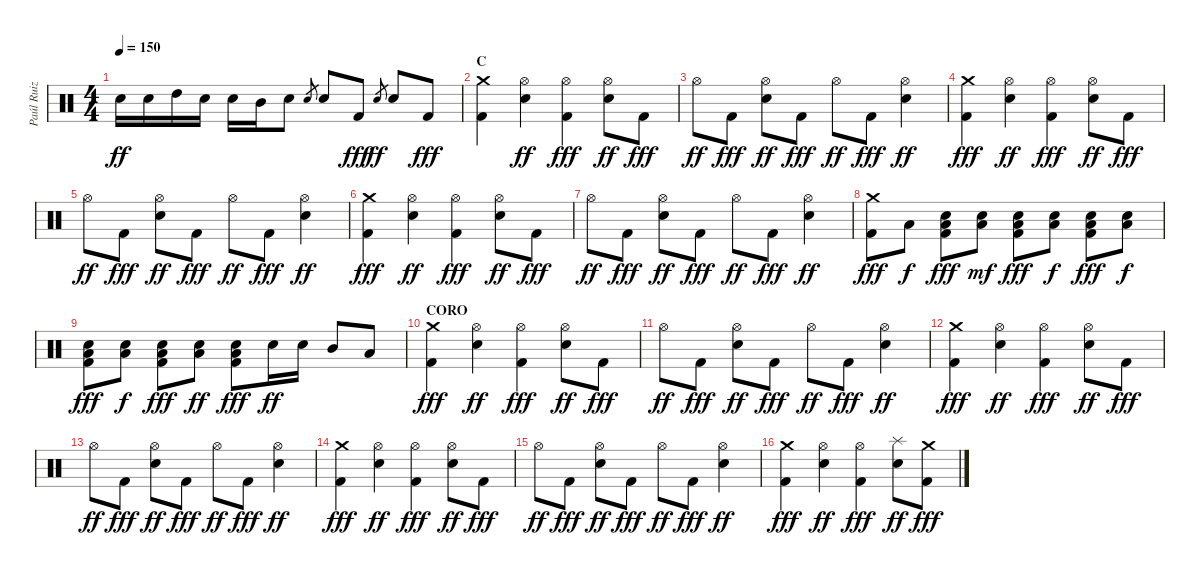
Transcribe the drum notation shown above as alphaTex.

\track ("Paúl Ruiz" "Paúl Ruiz") {instrument percussion}
\staff {score}
\articulation defaults
\ts (4 4)
\tempo 150
\clef neutral
\ks c "Snare (hit) 2".16{dy ff} "Snare (hit) 2".16 "High Tom (hit)".16 "Snare (hit) 2".16 "Snare (hit) 2".16 "Mid Tom (hit)".16 "Snare (hit) 2".8 "Snare (hit) 2".8{gr} "Snare (hit) 2".8 "Kick (hit) 2".8{dy fff} "Snare (hit) 2".8{gr dy ff} "Snare (hit) 2".8 "Kick (hit) 2".8{dy fff}
|
\section ("" "C")
("Crash medium (hit)" "Kick (hit) 2").4 ("Hi-Hat (open)" "Snare (hit) 2").4{dy ff} ("Hi-Hat (open)" "Kick (hit) 2").4{dy fff} ("Hi-Hat (open)" "Snare (hit) 2").8{dy ff} "Kick (hit) 2".8{dy fff} |
"Hi-Hat (open)".8{dy ff} "Kick (hit) 2".8{dy fff} ("Hi-Hat (open)" "Snare (hit) 2").8{dy ff} "Kick (hit) 2".8{dy fff} "Hi-Hat (open)".8{dy ff} "Kick (hit) 2".8{dy fff} ("Hi-Hat (open)" "Snare (hit) 2").4{dy ff} |
("Crash medium (hit)" "Kick (hit) 2").4{dy fff} ("Hi-Hat (open)" "Snare (hit) 2").4{dy ff} ("Hi-Hat (open)" "Kick (hit) 2").4{dy fff} ("Hi-Hat (open)" "Snare (hit) 2").8{dy ff} "Kick (hit) 2".8{dy fff} |
"Hi-Hat (open)".8{dy ff} "Kick (hit) 2".8{dy fff} ("Hi-Hat (open)" "Snare (hit) 2").8{dy ff} "Kick (hit) 2".8{dy fff} "Hi-Hat (open)".8{dy ff} "Kick (hit) 2".8{dy fff} ("Hi-Hat (open)" "Snare (hit) 2").4{dy ff} |
("Crash medium (hit)" "Kick (hit) 2").4{dy fff} ("Hi-Hat (open)" "Snare (hit) 2").4{dy ff} ("Hi-Hat (open)" "Kick (hit) 2").4{dy fff} ("Hi-Hat (open)" "Snare (hit) 2").8{dy ff} "Kick (hit) 2".8{dy fff} |
"Hi-Hat (open)".8{dy ff} "Kick (hit) 2".8{dy fff} ("Hi-Hat (open)" "Snare (hit) 2").8{dy ff} "Kick (hit) 2".8{dy fff} "Hi-Hat (open)".8{dy ff} "Kick (hit) 2".8{dy fff} ("Hi-Hat (open)" "Snare (hit) 2").4{dy ff} |
("Crash medium (hit)" "Kick (hit) 2").8{dy fff} "Low Tom (hit)".8{dy f} ("Snare (hit) 2" "Low Tom (hit)" "Kick (hit) 2").8{dy fff} ("Snare (hit) 2" "Low Tom (hit)").8{dy mf} ("Snare (hit) 2" "Low Tom (hit)" "Kick (hit) 2").8{dy fff} ("Snare (hit) 2" "Low Tom (hit)").8{dy f} ("Snare (hit) 2" "Low Tom (hit)" "Kick (hit) 2").8{dy fff} ("Snare (hit) 2" "Low Tom (hit)").8{dy f} |
("Snare (hit) 2" "Low Tom (hit)" "Kick (hit) 2").8{dy fff} ("Snare (hit) 2" "Low Tom (hit)").8{dy f} ("Snare (hit) 2" "Low Tom (hit)" "Kick (hit) 2").8{dy fff} ("Snare (hit) 2" "Low Tom (hit)").8{dy ff} ("Snare (hit) 2" "Low Tom (hit)" "Kick (hit) 2").8{dy fff} "Snare (hit) 2".16{dy ff} "Snare (hit) 2".16 "Mid Tom (hit)".8 "Low Tom (hit)".8 |
\section ("" "CORO")
("Crash medium (hit)" "Kick (hit) 2").4{dy fff} ("Hi-Hat (open)" "Snare (hit) 2").4{dy ff} ("Hi-Hat (open)" "Kick (hit) 2").4{dy fff} ("Hi-Hat (open)" "Snare (hit) 2").8{dy ff} "Kick (hit) 2".8{dy fff} |
"Hi-Hat (open)".8{dy ff} "Kick (hit) 2".8{dy fff} ("Hi-Hat (open)" "Snare (hit) 2").8{dy ff} "Kick (hit) 2".8{dy fff} "Hi-Hat (open)".8{dy ff} "Kick (hit) 2".8{dy fff} ("Hi-Hat (open)" "Snare (hit) 2").4{dy ff} |
("Crash medium (hit)" "Kick (hit) 2").4{dy fff} ("Hi-Hat (open)" "Snare (hit) 2").4{dy ff} ("Hi-Hat (open)" "Kick (hit) 2").4{dy fff} ("Hi-Hat (open)" "Snare (hit) 2").8{dy ff} "Kick (hit) 2".8{dy fff} |
"Hi-Hat (open)".8{dy ff} "Kick (hit) 2".8{dy fff} ("Hi-Hat (open)" "Snare (hit) 2").8{dy ff} "Kick (hit) 2".8{dy fff} "Hi-Hat (open)".8{dy ff} "Kick (hit) 2".8{dy fff} ("Hi-Hat (open)" "Snare (hit) 2").4{dy ff} |
("Crash medium (hit)" "Kick (hit) 2").4{dy fff} ("Hi-Hat (open)" "Snare (hit) 2").4{dy ff} ("Hi-Hat (open)" "Kick (hit) 2").4{dy fff} ("Hi-Hat (open)" "Snare (hit) 2").8{dy ff} "Kick (hit) 2".8{dy fff} |
"Hi-Hat (open)".8{dy ff} "Kick (hit) 2".8{dy fff} ("Hi-Hat (open)" "Snare (hit) 2").8{dy ff} "Kick (hit) 2".8{dy fff} "Hi-Hat (open)".8{dy ff} "Kick (hit) 2".8{dy fff} ("Hi-Hat (open)" "Snare (hit) 2").4{dy ff} |
("Crash medium (hit)" "Kick (hit) 2").4{dy fff} ("Hi-Hat (open)" "Snare (hit) 2").4{dy ff} ("Hi-Hat (open)" "Kick (hit) 2").4{dy fff} ("Splash (hit)" "Snare (hit) 2").8{dy ff} ("Crash medium (hit)" "Kick (hit) 2").8{dy fff}
